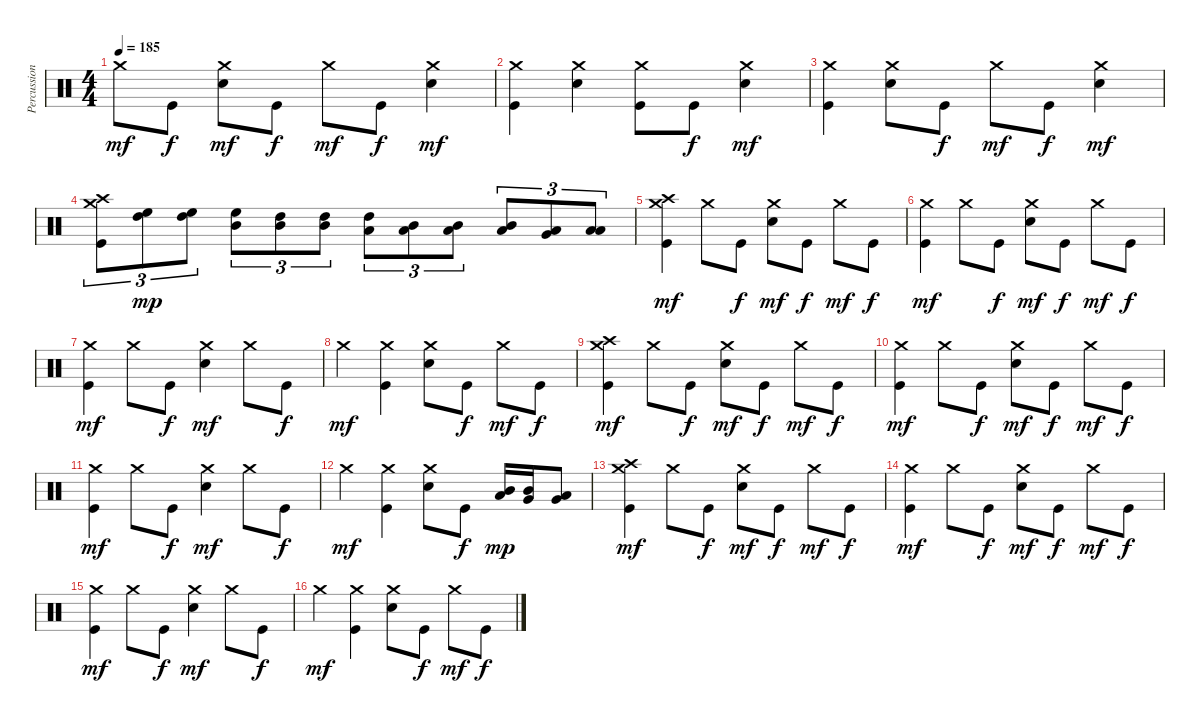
\track ("Percussions" "Percussion") {instrument percussion}
\staff {score}
\articulation defaults
\ts (4 4)
\tempo 185
\clef neutral
\ks c "Crash medium (hit)".8{dy mf} "Kick (hit)".8{dy f}
("Electric Snare (hit)" "Crash medium (hit)").8{dy mf} "Kick (hit)".8{dy f} "Crash medium (hit)".8{dy mf} "Kick (hit)".8{dy f} ("Electric Snare (hit)" "Crash medium (hit)").4{dy mf} |
("Kick (hit)" "Crash medium (hit)").4 ("Electric Snare (hit)" "Crash medium (hit)").4 ("Kick (hit)" "Crash medium (hit)").8 "Kick (hit)".8{dy f} ("Electric Snare (hit)" "Crash medium (hit)").4{dy mf} |
("Kick (hit)" "Crash medium (hit)").4 ("Electric Snare (hit)" "Crash medium (hit)").8 "Kick (hit)".8{dy f} "Crash medium (hit)".8{dy mf} "Kick (hit)".8{dy f} ("Electric Snare (hit)" "Crash medium (hit)").4{dy mf} |
("Kick (hit)" "Crash medium (hit)" "Crash high (hit)").8{tu (3 2)} ("High Tom (hit)" "High Floor Tom (hit)").8{tu (3 2) dy mp} ("High Tom (hit)" "High Floor Tom (hit)").8{tu (3 2)} ("Mid Tom (hit)" "High Floor Tom (hit)").8{tu (3 2)} ("Mid Tom (hit)" "High Tom (hit)").8{tu (3 2)} ("Mid Tom (hit)" "High Tom (hit)").8{tu (3 2)} ("Low Tom (hit)" "High Tom (hit)").8{tu (3 2)} ("Low Tom (hit)" "Mid Tom (hit)").8{tu (3 2)} ("Low Tom (hit)" "Mid Tom (hit)").8{tu (3 2)} ("Low Tom (hit)" "Mid Tom (hit)").8{tu (3 2)} ("Very Low Tom (hit)" "Low Tom (hit)").8{tu (3 2)} ("Low Floor Tom (hit)" "Low Tom (hit)").8{tu (3 2)} |
("Kick (hit)" "Crash medium (hit)" "Crash high (hit)").4{dy mf} "Crash medium (hit)".8 "Kick (hit)".8{dy f} ("Electric Snare (hit)" "Crash medium (hit)").8{dy mf} "Kick (hit)".8{dy f} "Crash medium (hit)".8{dy mf} "Kick (hit)".8{dy f} |
("Kick (hit)" "Crash medium (hit)").4{dy mf} "Crash medium (hit)".8 "Kick (hit)".8{dy f} ("Electric Snare (hit)" "Crash medium (hit)").8{dy mf} "Kick (hit)".8{dy f} "Crash medium (hit)".8{dy mf} "Kick (hit)".8{dy f} |
("Kick (hit)" "Crash medium (hit)").4{dy mf} "Crash medium (hit)".8 "Kick (hit)".8{dy f} ("Electric Snare (hit)" "Crash medium (hit)").4{dy mf} "Crash medium (hit)".8 "Kick (hit)".8{dy f} |
"Crash medium (hit)".4{dy mf} ("Kick (hit)" "Crash medium (hit)").4 ("Electric Snare (hit)" "Crash medium (hit)").8 "Kick (hit)".8{dy f} "Crash medium (hit)".8{dy mf} "Kick (hit)".8{dy f} |
("Kick (hit)" "Crash medium (hit)" "Crash high (hit)").4{dy mf} "Crash medium (hit)".8 "Kick (hit)".8{dy f} ("Electric Snare (hit)" "Crash medium (hit)").8{dy mf} "Kick (hit)".8{dy f} "Crash medium (hit)".8{dy mf} "Kick (hit)".8{dy f} |
("Kick (hit)" "Crash medium (hit)").4{dy mf} "Crash medium (hit)".8 "Kick (hit)".8{dy f} ("Electric Snare (hit)" "Crash medium (hit)").8{dy mf} "Kick (hit)".8{dy f} "Crash medium (hit)".8{dy mf} "Kick (hit)".8{dy f} |
("Kick (hit)" "Crash medium (hit)").4{dy mf} "Crash medium (hit)".8 "Kick (hit)".8{dy f} ("Electric Snare (hit)" "Crash medium (hit)").4{dy mf} "Crash medium (hit)".8 "Kick (hit)".8{dy f} |
"Crash medium (hit)".4{dy mf} ("Kick (hit)" "Crash medium (hit)").4 ("Electric Snare (hit)" "Crash medium (hit)").8 "Kick (hit)".8{dy f} ("Low Tom (hit)" "Mid Tom (hit)").16{dy mp} ("Very Low Tom (hit)" "Mid Tom (hit)").16 ("Very Low Tom (hit)" "Low Tom (hit)").8 |
("Kick (hit)" "Crash medium (hit)" "Crash high (hit)").4{dy mf} "Crash medium (hit)".8 "Kick (hit)".8{dy f} ("Electric Snare (hit)" "Crash medium (hit)").8{dy mf} "Kick (hit)".8{dy f} "Crash medium (hit)".8{dy mf} "Kick (hit)".8{dy f} |
("Kick (hit)" "Crash medium (hit)").4{dy mf} "Crash medium (hit)".8 "Kick (hit)".8{dy f} ("Electric Snare (hit)" "Crash medium (hit)").8{dy mf} "Kick (hit)".8{dy f} "Crash medium (hit)".8{dy mf} "Kick (hit)".8{dy f} |
("Kick (hit)" "Crash medium (hit)").4{dy mf} "Crash medium (hit)".8 "Kick (hit)".8{dy f} ("Electric Snare (hit)" "Crash medium (hit)").4{dy mf} "Crash medium (hit)".8 "Kick (hit)".8{dy f} |
"Crash medium (hit)".4{dy mf} ("Kick (hit)" "Crash medium (hit)").4 ("Electric Snare (hit)" "Crash medium (hit)").8 "Kick (hit)".8{dy f} "Crash medium (hit)".8{dy mf} "Kick (hit)".8{dy f}
